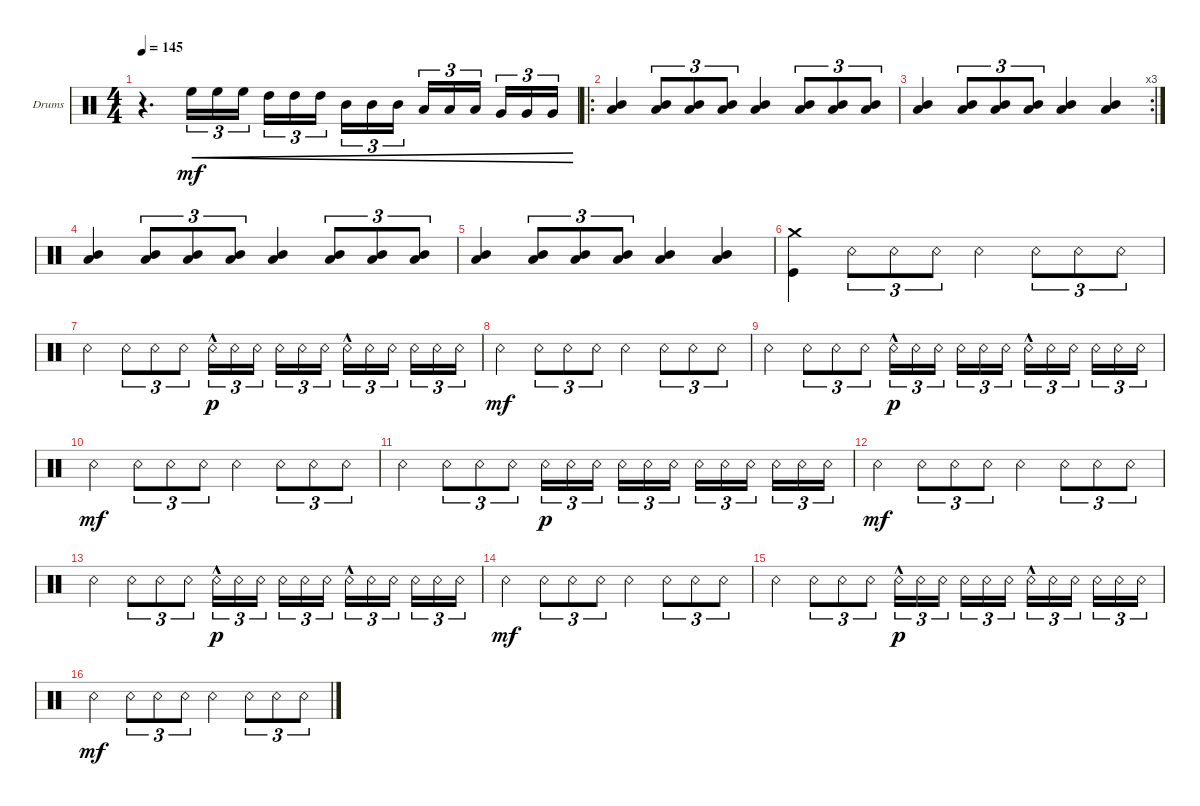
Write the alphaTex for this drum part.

\defaultSystemsLayout 4
\bracketExtendMode groupsimilarinstruments
\firstSystemTrackNameOrientation horizontal
\otherSystemsTrackNameOrientation horizontal
\track ("Drumkit" "Drums") {instrument percussion}
\staff {score}
\articulation defaults
\ts (4 4)
\tempo 145
\clef neutral
\ks c
r.4{d dy mf} "High Floor Tom (hit)".16{tu (3 2) cre} "High Floor Tom (hit)".16{tu (3 2) cre} "High Floor Tom (hit)".16{tu (3 2) cre} "High Tom (hit)".16{tu (3 2) cre} "High Tom (hit)".16{tu (3 2) cre} "High Tom (hit)".16{tu (3 2) cre} "Mid Tom (hit)".16{tu (3 2) cre} "Mid Tom (hit)".16{tu (3 2) cre} "Mid Tom (hit)".16{tu (3 2) cre} "Low Tom (hit)".16{tu (3 2) cre} "Low Tom (hit)".16{tu (3 2) cre} "Low Tom (hit)".16{tu (3 2) cre} "Very Low Tom (hit)".16{tu (3 2) cre} "Very Low Tom (hit)".16{tu (3 2) cre} "Very Low Tom (hit)".16{tu (3 2) cre} |
\ro
\scale
0.489177 ("Mid Tom (hit)" "Low Tom (hit)").4 ("Mid Tom (hit)" "Low Tom (hit)").8{tu (3 2)} ("Low Tom (hit)" "Mid Tom (hit)").8{tu (3 2)} ("Low Tom (hit)" "Mid Tom (hit)").8{tu (3 2)} ("Low Tom (hit)" "Mid Tom (hit)").4 ("Mid Tom (hit)" "Low Tom (hit)").8{tu (3 2)} ("Low Tom (hit)" "Mid Tom (hit)").8{tu (3 2)} ("Low Tom (hit)" "Mid Tom (hit)").8{tu (3 2)} |
\rc 3
\scale
0.268398 ("Low Tom (hit)" "Mid Tom (hit)").4 ("Mid Tom (hit)" "Low Tom (hit)").8{tu (3 2)} ("Low Tom (hit)" "Mid Tom (hit)").8{tu (3 2)} ("Mid Tom (hit)" "Low Tom (hit)").8{tu (3 2)} ("Mid Tom (hit)" "Low Tom (hit)").4 ("Low Tom (hit)" "Mid Tom (hit)").4 |
\scale
0.242424 ("Mid Tom (hit)" "Low Tom (hit)").4 ("Mid Tom (hit)" "Low Tom (hit)").8{tu (3 2)} ("Low Tom (hit)" "Mid Tom (hit)").8{tu (3 2)} ("Low Tom (hit)" "Mid Tom (hit)").8{tu (3 2)} ("Low Tom (hit)" "Mid Tom (hit)").4 ("Mid Tom (hit)" "Low Tom (hit)").8{tu (3 2)} ("Low Tom (hit)" "Mid Tom (hit)").8{tu (3 2)} ("Low Tom (hit)" "Mid Tom (hit)").8{tu (3 2)} |
\scale
0.333333 ("Low Tom (hit)" "Mid Tom (hit)").4 ("Mid Tom (hit)" "Low Tom (hit)").8{tu (3 2)} ("Low Tom (hit)" "Mid Tom (hit)").8{tu (3 2)} ("Mid Tom (hit)" "Low Tom (hit)").8{tu (3 2)} ("Mid Tom (hit)" "Low Tom (hit)").4 ("Low Tom (hit)" "Mid Tom (hit)").4 |
\scale
0.333333 ("Kick (hit)" "Crash medium (hit)").4 "Snare (rim shot)".8{tu (3 2)} "Snare (rim shot)".8{tu (3 2)} "Snare (rim shot)".8{tu (3 2)} "Snare (rim shot)".4 "Snare (rim shot)".8{tu (3 2)} "Snare (rim shot)".8{tu (3 2)} "Snare (rim shot)".8{tu (3 2)} |
\scale
0.333333 "Snare (rim shot)".4 "Snare (rim shot)".8{tu (3 2)} "Snare (rim shot)".8{tu (3 2)} "Snare (rim shot)".8{tu (3 2)} "Snare (rim shot)"{hac}.16{tu (3 2) dy p} "Snare (rim shot)".16{tu (3 2)} "Snare (rim shot)".16{tu (3 2)} "Snare (rim shot)".16{tu (3 2)} "Snare (rim shot)".16{tu (3 2)} "Snare (rim shot)".16{tu (3 2)} "Snare (rim shot)"{hac}.16{tu (3 2)} "Snare (rim shot)".16{tu (3 2)} "Snare (rim shot)".16{tu (3 2)} "Snare (rim shot)".16{tu (3 2)} "Snare (rim shot)".16{tu (3 2)} "Snare (rim shot)".16{tu (3 2)} |
"Snare (rim shot)".4{dy mf} "Snare (rim shot)".8{tu (3 2)} "Snare (rim shot)".8{tu (3 2)} "Snare (rim shot)".8{tu (3 2)} "Snare (rim shot)".4 "Snare (rim shot)".8{tu (3 2)} "Snare (rim shot)".8{tu (3 2)} "Snare (rim shot)".8{tu (3 2)} |
"Snare (rim shot)".4 "Snare (rim shot)".8{tu (3 2)} "Snare (rim shot)".8{tu (3 2)} "Snare (rim shot)".8{tu (3 2)} "Snare (rim shot)"{hac}.16{tu (3 2) dy p} "Snare (rim shot)".16{tu (3 2)} "Snare (rim shot)".16{tu (3 2)} "Snare (rim shot)".16{tu (3 2)} "Snare (rim shot)".16{tu (3 2)} "Snare (rim shot)".16{tu (3 2)} "Snare (rim shot)"{hac}.16{tu (3 2)} "Snare (rim shot)".16{tu (3 2)} "Snare (rim shot)".16{tu (3 2)} "Snare (rim shot)".16{tu (3 2)} "Snare (rim shot)".16{tu (3 2)} "Snare (rim shot)".16{tu (3 2)} |
"Snare (rim shot)".4{dy mf} "Snare (rim shot)".8{tu (3 2)} "Snare (rim shot)".8{tu (3 2)} "Snare (rim shot)".8{tu (3 2)} "Snare (rim shot)".4 "Snare (rim shot)".8{tu (3 2)} "Snare (rim shot)".8{tu (3 2)} "Snare (rim shot)".8{tu (3 2)} |
"Snare (rim shot)".4 "Snare (rim shot)".8{tu (3 2)} "Snare (rim shot)".8{tu (3 2)} "Snare (rim shot)".8{tu (3 2)} "Snare (rim shot)".16{tu (3 2) dy p} "Snare (rim shot)".16{tu (3 2)} "Snare (rim shot)".16{tu (3 2)} "Snare (rim shot)".16{tu (3 2)} "Snare (rim shot)".16{tu (3 2)} "Snare (rim shot)".16{tu (3 2)} "Snare (rim shot)".16{tu (3 2)} "Snare (rim shot)".16{tu (3 2)} "Snare (rim shot)".16{tu (3 2)} "Snare (rim shot)".16{tu (3 2)} "Snare (rim shot)".16{tu (3 2)} "Snare (rim shot)".16{tu (3 2)} |
"Snare (rim shot)".4{dy mf} "Snare (rim shot)".8{tu (3 2)} "Snare (rim shot)".8{tu (3 2)} "Snare (rim shot)".8{tu (3 2)} "Snare (rim shot)".4 "Snare (rim shot)".8{tu (3 2)} "Snare (rim shot)".8{tu (3 2)} "Snare (rim shot)".8{tu (3 2)} |
"Snare (rim shot)".4 "Snare (rim shot)".8{tu (3 2)} "Snare (rim shot)".8{tu (3 2)} "Snare (rim shot)".8{tu (3 2)} "Snare (rim shot)"{hac}.16{tu (3 2) dy p} "Snare (rim shot)".16{tu (3 2)} "Snare (rim shot)".16{tu (3 2)} "Snare (rim shot)".16{tu (3 2)} "Snare (rim shot)".16{tu (3 2)} "Snare (rim shot)".16{tu (3 2)} "Snare (rim shot)"{hac}.16{tu (3 2)} "Snare (rim shot)".16{tu (3 2)} "Snare (rim shot)".16{tu (3 2)} "Snare (rim shot)".16{tu (3 2)} "Snare (rim shot)".16{tu (3 2)} "Snare (rim shot)".16{tu (3 2)} |
"Snare (rim shot)".4{dy mf} "Snare (rim shot)".8{tu (3 2)} "Snare (rim shot)".8{tu (3 2)} "Snare (rim shot)".8{tu (3 2)} "Snare (rim shot)".4 "Snare (rim shot)".8{tu (3 2)} "Snare (rim shot)".8{tu (3 2)} "Snare (rim shot)".8{tu (3 2)} |
"Snare (rim shot)".4 "Snare (rim shot)".8{tu (3 2)} "Snare (rim shot)".8{tu (3 2)} "Snare (rim shot)".8{tu (3 2)} "Snare (rim shot)"{hac}.16{tu (3 2) dy p} "Snare (rim shot)".16{tu (3 2)} "Snare (rim shot)".16{tu (3 2)} "Snare (rim shot)".16{tu (3 2)} "Snare (rim shot)".16{tu (3 2)} "Snare (rim shot)".16{tu (3 2)} "Snare (rim shot)"{hac}.16{tu (3 2)} "Snare (rim shot)".16{tu (3 2)} "Snare (rim shot)".16{tu (3 2)} "Snare (rim shot)".16{tu (3 2)} "Snare (rim shot)".16{tu (3 2)} "Snare (rim shot)".16{tu (3 2)} |
"Snare (rim shot)".4{dy mf} "Snare (rim shot)".8{tu (3 2)} "Snare (rim shot)".8{tu (3 2)} "Snare (rim shot)".8{tu (3 2)} "Snare (rim shot)".4 "Snare (rim shot)".8{tu (3 2)} "Snare (rim shot)".8{tu (3 2)} "Snare (rim shot)".8{tu (3 2)}
